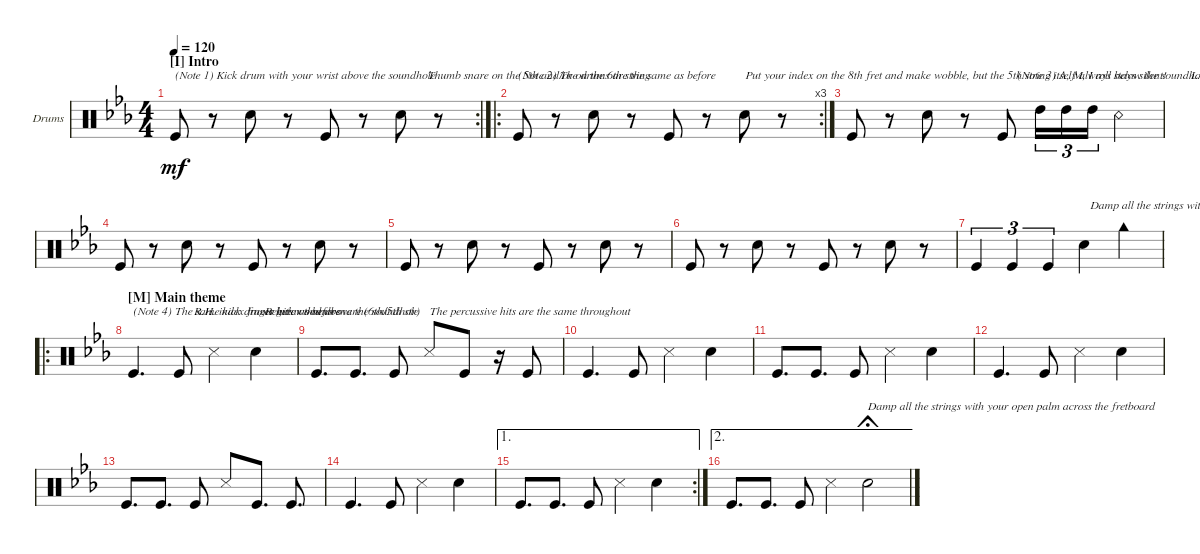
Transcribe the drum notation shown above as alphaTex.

\defaultSystemsLayout 4
\bracketExtendMode groupsimilarinstruments
\firstSystemTrackNameOrientation horizontal
\otherSystemsTrackNameOrientation horizontal
\track ("Percussion" "Drums") {instrument percussion}
\staff {score}
\articulation defaults
\rc 2
\ts (4 4)
\section ("I" "Intro")
\tempo 120
\clef neutral
\ks eb "Kick (hit)".8{txt "(Note 1) Kick drum with your wrist above the soundhole" dy mf}
r.8 "Snare (hit) 2".8{txt "                                                           Thumb snare on the 5th and/or on the 6th string"} r.8 "Kick (hit)".8 r.8 "Snare (hit) 2".8 r.8 |
\ro
\rc 3 "Kick (hit)".8{txt "(Note 2) The drums are the same as before          Put your index on the 8th fret and make wobble, but the 5th string itself always stays silent!"}
r.8 "Snare (hit) 2".8 r.8 "Kick (hit)".8 r.8 "Snare (hit) 2".8 r.8 |
"Kick (hit)".8 r.8 "Snare (hit) 2".8 r.8 "Kick (hit)".8{txt "     (Note 3) A, M, I roll below the soundhole"} "High Tom (hit)".16{tu (3 2)} "High Tom (hit)".16{tu (3 2)} "High Tom (hit)".16{tu (3 2)} "Snare (rim shot)".4{txt "                        L.H. hit below the neck"} |
"Kick (hit)".8 r.8 "Snare (hit) 2".8 r.8 "Kick (hit)".8 r.8 "Snare (hit) 2".8 r.8 |
"Kick (hit)".8 r.8 "Snare (hit) 2".8 r.8 "Kick (hit)".8 r.8 "Snare (hit) 2".8 r.8 |
"Kick (hit)".8 r.8 "Snare (hit) 2".8 r.8 "Kick (hit)".8 r.8 "Snare (hit) 2".8 r.8 |
"Kick (hit)".4{tu (3 2)} "Kick (hit)".4{tu (3 2)} "Kick (hit)".4{tu (3 2) txt "              Damp all the strings with your R.H. open palm across the fretboard (A BIG snare!)"} "Snare (hit) 2".4 "Cowbell high (hit)".4 |
\ro
\section ("M" "Main theme")
"Kick (hit)".4{d txt "(Note 4) The same kick drums here as before"} "Kick (hit)".8{txt "     R.H. index finger hits wood above the soundhole"} "Snare (side stick) 3".4 "Snare (hit) 2".4{txt "   Regular thumb snare (6th/5th str)"} |
"Kick (hit)".8{d} "Kick (hit)".8{d} "Kick (hit)".8 "Snare (side stick) 3".8{txt "The percussive hits are the same throughout"} "Kick (hit)".8 r.16 "Kick (hit)".8 |
"Kick (hit)".4{d} "Kick (hit)".8 "Snare (side stick) 3".4 "Snare (hit) 2".4 |
"Kick (hit)".8{d} "Kick (hit)".8{d} "Kick (hit)".8 "Snare (side stick) 3".4 "Snare (hit) 2".4 |
"Kick (hit)".4{d} "Kick (hit)".8 "Snare (side stick) 3".4 "Snare (hit) 2".4 |
"Kick (hit)".8{d} "Kick (hit)".8{d} "Kick (hit)".8 "Snare (side stick) 3".8 "Kick (hit)".8{d} "Kick (hit)".8{d} |
"Kick (hit)".4{d} "Kick (hit)".8 "Snare (side stick) 3".4 "Snare (hit) 2".4 |
\ae 1
\rc 2 "Kick (hit)".8{d} "Kick (hit)".8{d} "Kick (hit)".8 "Snare (side stick) 3".4 "Snare (hit) 2".4
|
\ae 2 "Kick (hit)".8{d} "Kick (hit)".8{d} "Kick (hit)".8 "Snare (side stick) 3".4 "Snare (hit) 2".2{txt "Damp all the strings with your open palm across the fretboard " fermata (short 0)}
